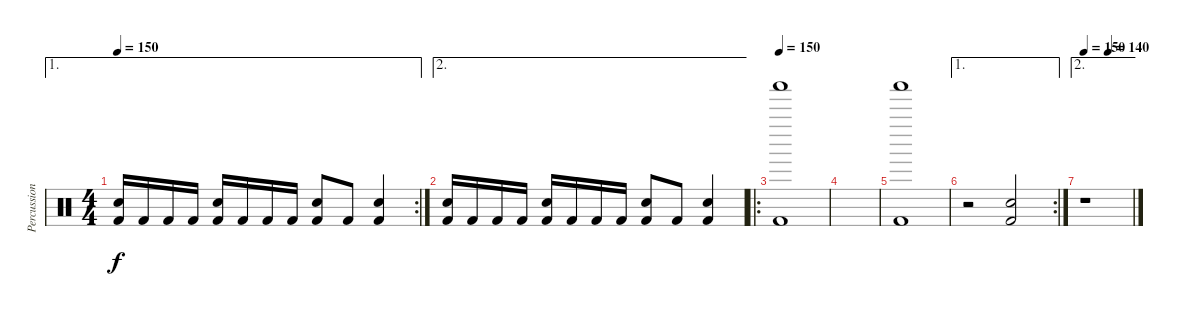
\track ("Percussion" "Percussion") {instrument percussion}
\staff {score}
\articulation defaults
\ae 1
\rc 2
\ts (4 4)
\tempo 150
\clef neutral
\ks c
("Snare (hit) 2" "Kick (hit) 2").16{dy f} "Kick (hit) 2".16 "Kick (hit) 2".16 "Kick (hit) 2".16 ("Snare (hit) 2" "Kick (hit) 2").16 "Kick (hit) 2".16 "Kick (hit) 2".16 "Kick (hit) 2".16 ("Snare (hit) 2" "Kick (hit) 2").8 "Kick (hit) 2".8 ("Snare (hit) 2" "Kick (hit) 2").4 |
\ae 2
("Snare (hit) 2" "Kick (hit) 2").16 "Kick (hit) 2".16 "Kick (hit) 2".16 "Kick (hit) 2".16 ("Snare (hit) 2" "Kick (hit) 2").16 "Kick (hit) 2".16 "Kick (hit) 2".16 "Kick (hit) 2".16 ("Snare (hit) 2" "Kick (hit) 2").8 "Kick (hit) 2".8 ("Snare (hit) 2" "Kick (hit) 2").4 |
\ro
\tempo 150
("Shaker (hit)" "Kick (hit) 2").1 |
|
("Shaker (hit)" "Kick (hit) 2").1 |
\ae 1
\rc 2
r.2 ("Snare (hit) 2" "Kick (hit) 2").2 |
\ae 2
\tempo (140 0.5)
\tempo 150
r.1
